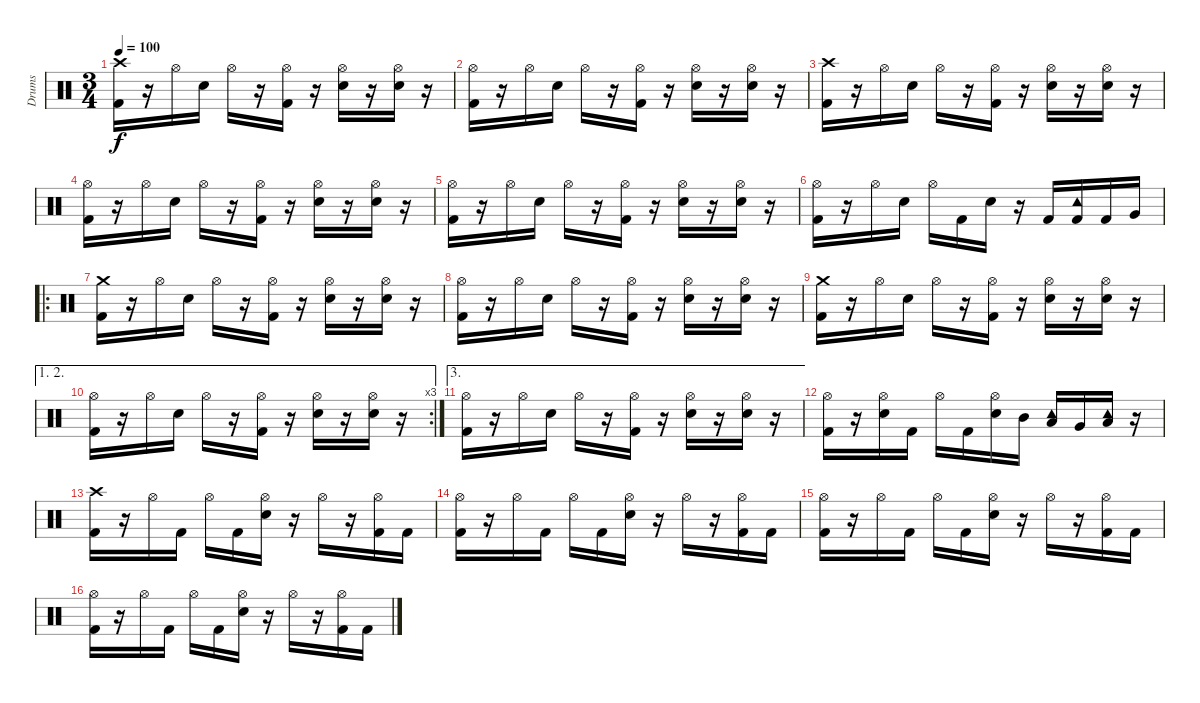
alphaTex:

\track ("Drums" "Drums") {instrument percussion}
\staff {score}
\articulation defaults
\ts (3 4)
\tempo 100
\clef neutral
\ks c
("Crash high (hit)" "Kick (hit) 2").16{dy f} r.16 "Hi-Hat (open)".16 "Snare (hit) 2".16 "Hi-Hat (open)".16 r.16 ("Hi-Hat (open)" "Kick (hit) 2").16 r.16 ("Hi-Hat (open)" "Snare (hit) 2").16 r.16 ("Hi-Hat (open)" "Snare (hit) 2").16 r.16 |
("Hi-Hat (open)" "Kick (hit) 2").16 r.16 "Hi-Hat (open)".16 "Snare (hit) 2".16 "Hi-Hat (open)".16 r.16 ("Hi-Hat (open)" "Kick (hit) 2").16 r.16 ("Hi-Hat (open)" "Snare (hit) 2").16 r.16 ("Hi-Hat (open)" "Snare (hit) 2").16 r.16 |
("Crash high (hit)" "Kick (hit) 2").16 r.16 "Hi-Hat (open)".16 "Snare (hit) 2".16 "Hi-Hat (open)".16 r.16 ("Hi-Hat (open)" "Kick (hit) 2").16 r.16 ("Hi-Hat (open)" "Snare (hit) 2").16 r.16 ("Hi-Hat (open)" "Snare (hit) 2").16 r.16 |
("Hi-Hat (open)" "Kick (hit) 2").16 r.16 "Hi-Hat (open)".16 "Snare (hit) 2".16 "Hi-Hat (open)".16 r.16 ("Hi-Hat (open)" "Kick (hit) 2").16 r.16 ("Hi-Hat (open)" "Snare (hit) 2").16 r.16 ("Hi-Hat (open)" "Snare (hit) 2").16 r.16 |
("Hi-Hat (open)" "Kick (hit) 2").16 r.16 "Hi-Hat (open)".16 "Snare (hit) 2".16 "Hi-Hat (open)".16 r.16 ("Hi-Hat (open)" "Kick (hit) 2").16 r.16 ("Hi-Hat (open)" "Snare (hit) 2").16 r.16 ("Hi-Hat (open)" "Snare (hit) 2").16 r.16 |
("Hi-Hat (open)" "Kick (hit) 2").16 r.16 "Hi-Hat (open)".16 "Snare (hit) 2".16 "Hi-Hat (open)".16 "Kick (hit) 2".16 "Snare (hit) 2".16 r.16 "Kick (hit) 2".16 ("Tambourine (hit)" "Kick (hit) 2").16 "Kick (hit) 2".16 "Very Low Tom (hit)".16 |
\ro
("Crash medium (hit)" "Kick (hit) 2").16 r.16 "Hi-Hat (open)".16 "Snare (hit) 2".16 "Hi-Hat (open)".16 r.16 ("Hi-Hat (open)" "Kick (hit) 2").16 r.16 ("Hi-Hat (open)" "Snare (hit) 2").16 r.16 ("Hi-Hat (open)" "Snare (hit) 2").16 r.16 |
("Hi-Hat (open)" "Kick (hit) 2").16 r.16 "Hi-Hat (open)".16 "Snare (hit) 2".16 "Hi-Hat (open)".16 r.16 ("Hi-Hat (open)" "Kick (hit) 2").16 r.16 ("Hi-Hat (open)" "Snare (hit) 2").16 r.16 ("Hi-Hat (open)" "Snare (hit) 2").16 r.16 |
("Crash medium (hit)" "Kick (hit) 2").16 r.16 "Hi-Hat (open)".16 "Snare (hit) 2".16 "Hi-Hat (open)".16 r.16 ("Hi-Hat (open)" "Kick (hit) 2").16 r.16 ("Hi-Hat (open)" "Snare (hit) 2").16 r.16 ("Hi-Hat (open)" "Snare (hit) 2").16 r.16 |
\ae (1 2)
\rc 3
("Hi-Hat (open)" "Kick (hit) 2").16 r.16 "Hi-Hat (open)".16 "Snare (hit) 2".16 "Hi-Hat (open)".16 r.16 ("Hi-Hat (open)" "Kick (hit) 2").16 r.16 ("Hi-Hat (open)" "Snare (hit) 2").16 r.16 ("Hi-Hat (open)" "Snare (hit) 2").16 r.16 |
\ae 3
("Hi-Hat (open)" "Kick (hit) 2").16 r.16 "Hi-Hat (open)".16 "Snare (hit) 2".16 "Hi-Hat (open)".16 r.16 ("Hi-Hat (open)" "Kick (hit) 2").16 r.16 ("Hi-Hat (open)" "Snare (hit) 2").16 r.16 ("Hi-Hat (open)" "Snare (hit) 2").16 r.16 |
("Hi-Hat (open)" "Kick (hit) 2").16 r.16 ("Hi-Hat (open)" "Snare (hit) 2").16 "Kick (hit) 2".16 "Hi-Hat (open)".16 "Kick (hit) 2".16 ("Hi-Hat (open)" "Snare (hit) 2").16 "Mid Tom (hit)".16 ("Tambourine (hit)" "Low Tom (hit)").16 "Very Low Tom (hit)".16 ("Tambourine (hit)" "Low Floor Tom (hit)").16 r.16 |
("Crash high (hit)" "Kick (hit) 2").16 r.16 "Hi-Hat (open)".16 "Kick (hit) 2".16 "Hi-Hat (open)".16 "Kick (hit) 2".16 ("Hi-Hat (open)" "Snare (hit) 2").16 r.16 "Hi-Hat (open)".16 r.16 ("Hi-Hat (open)" "Kick (hit) 2").16 "Kick (hit) 2".16 |
("Hi-Hat (open)" "Kick (hit) 2").16 r.16 "Hi-Hat (open)".16 "Kick (hit) 2".16 "Hi-Hat (open)".16 "Kick (hit) 2".16 ("Hi-Hat (open)" "Snare (hit) 2").16 r.16 "Hi-Hat (open)".16 r.16 ("Hi-Hat (open)" "Kick (hit) 2").16 "Kick (hit) 2".16 |
("Hi-Hat (open)" "Kick (hit) 2").16 r.16 "Hi-Hat (open)".16 "Kick (hit) 2".16 "Hi-Hat (open)".16 "Kick (hit) 2".16 ("Hi-Hat (open)" "Snare (hit) 2").16 r.16 "Hi-Hat (open)".16 r.16 ("Hi-Hat (open)" "Kick (hit) 2").16 "Kick (hit) 2".16 |
("Hi-Hat (open)" "Kick (hit) 2").16 r.16 "Hi-Hat (open)".16 "Kick (hit) 2".16 "Hi-Hat (open)".16 "Kick (hit) 2".16 ("Hi-Hat (open)" "Snare (hit) 2").16 r.16 "Hi-Hat (open)".16 r.16 ("Hi-Hat (open)" "Kick (hit) 2").16 "Kick (hit) 2".16
